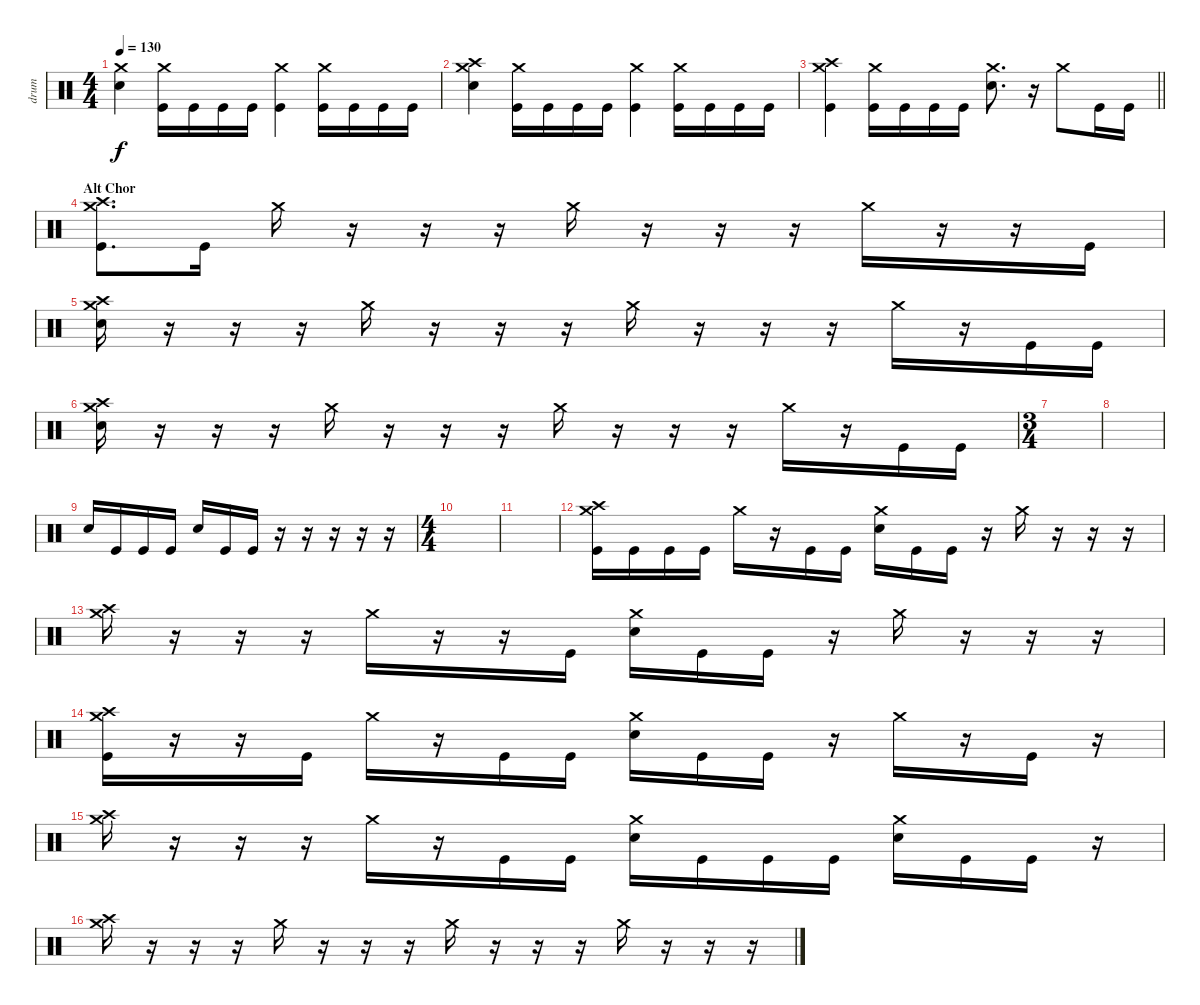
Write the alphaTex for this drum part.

\track ("drum" "drum") {instrument percussion}
\staff {score}
\articulation defaults
\ts (4 4)
\tempo 130
\clef neutral
\ks c
("Crash medium (hit)" "Snare (hit) 2").4{dy f} ("Crash medium (hit)" "Kick (hit)").16 "Kick (hit)".16 "Kick (hit)".16 "Kick (hit)".16 ("Crash medium (hit)" "Kick (hit)").4 ("Crash medium (hit)" "Kick (hit)").16 "Kick (hit)".16 "Kick (hit)".16 "Kick (hit)".16 |
("Crash high (hit)" "Crash medium (hit)" "Snare (hit) 2").4 ("Crash medium (hit)" "Kick (hit)").16 "Kick (hit)".16 "Kick (hit)".16 "Kick (hit)".16 ("Crash medium (hit)" "Kick (hit)").4 ("Crash medium (hit)" "Kick (hit)").16 "Kick (hit)".16 "Kick (hit)".16 "Kick (hit)".16 |
\barLineRight lightlight
("Crash high (hit)" "Crash medium (hit)" "Kick (hit)").4 ("Crash medium (hit)" "Kick (hit)").16 "Kick (hit)".16 "Kick (hit)".16 "Kick (hit)".16 ("Crash medium (hit)" "Snare (hit) 2").8{d} r.16 "Crash medium (hit)".8 "Kick (hit)".16 "Kick (hit)".16 |
\section ("" "Alt Chor")
("Crash high (hit)" "Crash medium (hit)" "Kick (hit)").8{d} "Kick (hit)".16 "Crash medium (hit)".16 r.16 r.16 r.16 "Crash medium (hit)".16 r.16 r.16 r.16 "Crash medium (hit)".16 r.16 r.16 "Kick (hit)".16 |
("Crash medium (hit)" "Crash high (hit)" "Snare (hit) 2").16 r.16 r.16 r.16 "Crash medium (hit)".16 r.16 r.16 r.16 "Crash medium (hit)".16 r.16 r.16 r.16 "Crash medium (hit)".16 r.16 "Kick (hit)".16 "Kick (hit)".16 |
("Crash medium (hit)" "Crash high (hit)" "Snare (hit) 2").16 r.16 r.16 r.16 "Crash medium (hit)".16 r.16 r.16 r.16 "Crash medium (hit)".16 r.16 r.16 r.16 "Crash medium (hit)".16 r.16 "Kick (hit)".16 "Kick (hit)".16 |
\ts (3 4)
|
|
"Snare (hit) 2".16 "Kick (hit)".16 "Kick (hit)".16 "Kick (hit)".16 "Snare (hit) 2".16 "Kick (hit)".16 "Kick (hit)".16 r.16 r.16 r.16 r.16 r.16 |
\ts (4 4)
|
|
("Crash high (hit)" "Crash medium (hit)" "Kick (hit)").16 "Kick (hit)".16 "Kick (hit)".16 "Kick (hit)".16 "Crash medium (hit)".16 r.16 "Kick (hit)".16 "Kick (hit)".16 ("Crash medium (hit)" "Snare (hit) 2").16 "Kick (hit)".16 "Kick (hit)".16 r.16 "Crash medium (hit)".16 r.16 r.16 r.16 |
("Crash high (hit)" "Crash medium (hit)").16 r.16 r.16 r.16 "Crash medium (hit)".16 r.16 r.16 "Kick (hit)".16 ("Crash medium (hit)" "Snare (hit) 2").16 "Kick (hit)".16 "Kick (hit)".16 r.16 "Crash medium (hit)".16 r.16 r.16 r.16 |
("Crash medium (hit)" "Crash high (hit)" "Kick (hit)").16 r.16 r.16 "Kick (hit)".16 "Crash medium (hit)".16 r.16 "Kick (hit)".16 "Kick (hit)".16 ("Crash medium (hit)" "Snare (hit) 2").16 "Kick (hit)".16 "Kick (hit)".16 r.16 "Crash medium (hit)".16 r.16 "Kick (hit)".16 r.16 |
("Crash high (hit)" "Crash medium (hit)").16 r.16 r.16 r.16 "Crash medium (hit)".16 r.16 "Kick (hit)".16 "Kick (hit)".16 ("Crash medium (hit)" "Snare (hit) 2").16 "Kick (hit)".16 "Kick (hit)".16 "Kick (hit)".16 ("Crash medium (hit)" "Snare (hit) 2").16 "Kick (hit)".16 "Kick (hit)".16 r.16 |
("Crash high (hit)" "Crash medium (hit)").16 r.16 r.16 r.16 "Crash medium (hit)".16 r.16 r.16 r.16 "Crash medium (hit)".16 r.16 r.16 r.16 "Crash medium (hit)".16 r.16 r.16 r.16
